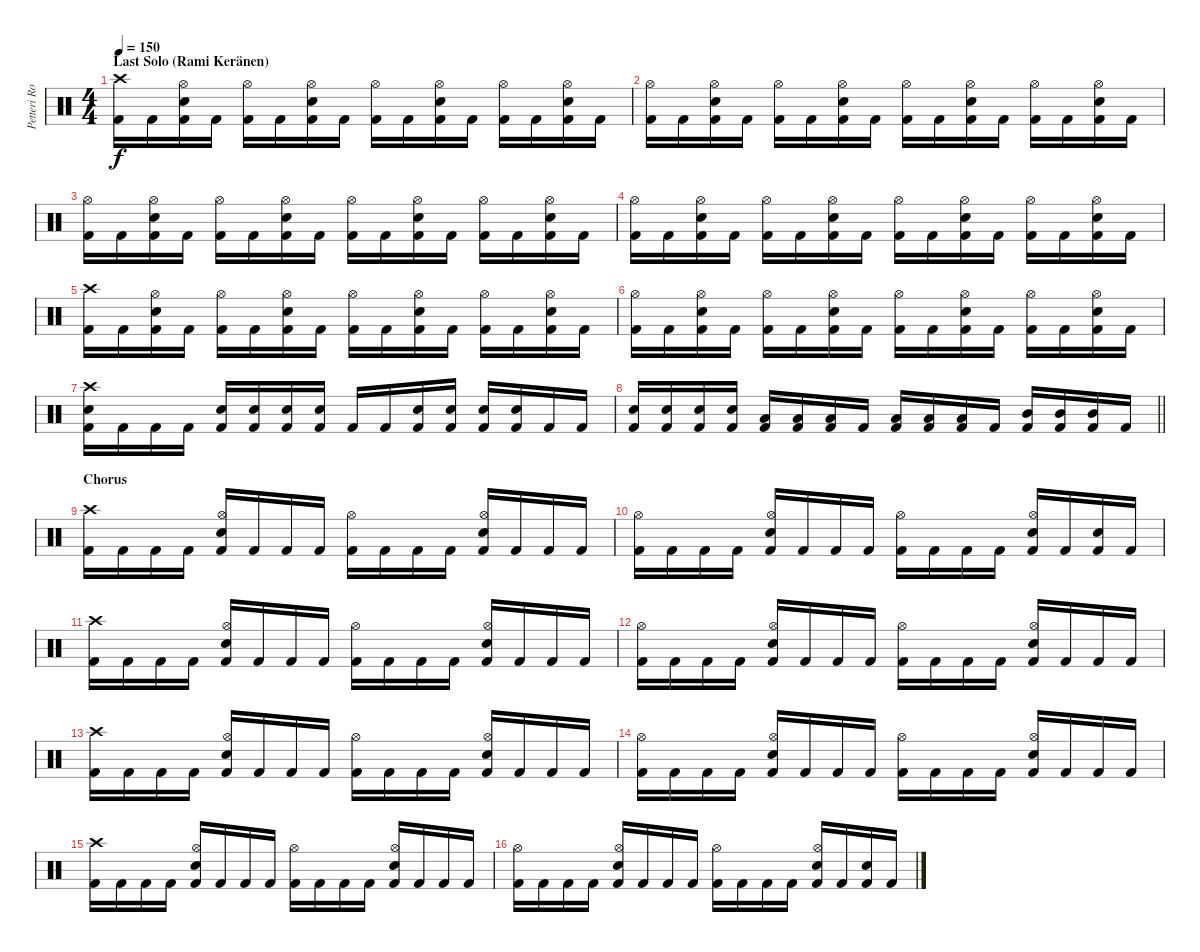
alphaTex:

\track ("Petteri Rosenbom" "Petteri Ro") {instrument percussion}
\staff {score}
\articulation defaults
\ts (4 4)
\section ("" "Last Solo (Rami Keränen)")
\tempo 150
\clef neutral
\ks c
("Crash high (hit)" "Kick (hit) 2").16{dy f} "Kick (hit) 2".16 ("Hi-Hat (open)" "Electric Snare (hit)" "Kick (hit) 2").16 "Kick (hit) 2".16 ("Hi-Hat (open)" "Kick (hit) 2").16 "Kick (hit) 2".16 ("Hi-Hat (open)" "Electric Snare (hit)" "Kick (hit) 2").16 "Kick (hit) 2".16 ("Hi-Hat (open)" "Kick (hit) 2").16 "Kick (hit) 2".16 ("Hi-Hat (open)" "Electric Snare (hit)" "Kick (hit) 2").16 "Kick (hit) 2".16 ("Hi-Hat (open)" "Kick (hit) 2").16 "Kick (hit) 2".16 ("Hi-Hat (open)" "Electric Snare (hit)" "Kick (hit) 2").16 "Kick (hit) 2".16 |
("Hi-Hat (open)" "Kick (hit) 2").16 "Kick (hit) 2".16 ("Hi-Hat (open)" "Electric Snare (hit)" "Kick (hit) 2").16 "Kick (hit) 2".16 ("Hi-Hat (open)" "Kick (hit) 2").16 "Kick (hit) 2".16 ("Hi-Hat (open)" "Electric Snare (hit)" "Kick (hit) 2").16 "Kick (hit) 2".16 ("Hi-Hat (open)" "Kick (hit) 2").16 "Kick (hit) 2".16 ("Hi-Hat (open)" "Electric Snare (hit)" "Kick (hit) 2").16 "Kick (hit) 2".16 ("Hi-Hat (open)" "Kick (hit) 2").16 "Kick (hit) 2".16 ("Hi-Hat (open)" "Electric Snare (hit)" "Kick (hit) 2").16 "Kick (hit) 2".16 |
("Hi-Hat (open)" "Kick (hit) 2").16 "Kick (hit) 2".16 ("Hi-Hat (open)" "Electric Snare (hit)" "Kick (hit) 2").16 "Kick (hit) 2".16 ("Hi-Hat (open)" "Kick (hit) 2").16 "Kick (hit) 2".16 ("Hi-Hat (open)" "Electric Snare (hit)" "Kick (hit) 2").16 "Kick (hit) 2".16 ("Hi-Hat (open)" "Kick (hit) 2").16 "Kick (hit) 2".16 ("Hi-Hat (open)" "Electric Snare (hit)" "Kick (hit) 2").16 "Kick (hit) 2".16 ("Hi-Hat (open)" "Kick (hit) 2").16 "Kick (hit) 2".16 ("Hi-Hat (open)" "Electric Snare (hit)" "Kick (hit) 2").16 "Kick (hit) 2".16 |
("Hi-Hat (open)" "Kick (hit) 2").16 "Kick (hit) 2".16 ("Hi-Hat (open)" "Electric Snare (hit)" "Kick (hit) 2").16 "Kick (hit) 2".16 ("Hi-Hat (open)" "Kick (hit) 2").16 "Kick (hit) 2".16 ("Hi-Hat (open)" "Electric Snare (hit)" "Kick (hit) 2").16 "Kick (hit) 2".16 ("Hi-Hat (open)" "Kick (hit) 2").16 "Kick (hit) 2".16 ("Hi-Hat (open)" "Electric Snare (hit)" "Kick (hit) 2").16 "Kick (hit) 2".16 ("Hi-Hat (open)" "Kick (hit) 2").16 "Kick (hit) 2".16 ("Hi-Hat (open)" "Electric Snare (hit)" "Kick (hit) 2").16 "Kick (hit) 2".16 |
("Crash high (hit)" "Kick (hit) 2").16 "Kick (hit) 2".16 ("Hi-Hat (open)" "Electric Snare (hit)" "Kick (hit) 2").16 "Kick (hit) 2".16 ("Hi-Hat (open)" "Kick (hit) 2").16 "Kick (hit) 2".16 ("Hi-Hat (open)" "Electric Snare (hit)" "Kick (hit) 2").16 "Kick (hit) 2".16 ("Hi-Hat (open)" "Kick (hit) 2").16 "Kick (hit) 2".16 ("Hi-Hat (open)" "Electric Snare (hit)" "Kick (hit) 2").16 "Kick (hit) 2".16 ("Hi-Hat (open)" "Kick (hit) 2").16 "Kick (hit) 2".16 ("Hi-Hat (open)" "Electric Snare (hit)" "Kick (hit) 2").16 "Kick (hit) 2".16 |
("Hi-Hat (open)" "Kick (hit) 2").16 "Kick (hit) 2".16 ("Hi-Hat (open)" "Electric Snare (hit)" "Kick (hit) 2").16 "Kick (hit) 2".16 ("Hi-Hat (open)" "Kick (hit) 2").16 "Kick (hit) 2".16 ("Hi-Hat (open)" "Electric Snare (hit)" "Kick (hit) 2").16 "Kick (hit) 2".16 ("Hi-Hat (open)" "Kick (hit) 2").16 "Kick (hit) 2".16 ("Hi-Hat (open)" "Electric Snare (hit)" "Kick (hit) 2").16 "Kick (hit) 2".16 ("Hi-Hat (open)" "Kick (hit) 2").16 "Kick (hit) 2".16 ("Hi-Hat (open)" "Electric Snare (hit)" "Kick (hit) 2").16 "Kick (hit) 2".16 |
("Crash high (hit)" "Electric Snare (hit)" "Kick (hit) 2").16 "Kick (hit) 2".16 "Kick (hit) 2".16 "Kick (hit) 2".16 ("Electric Snare (hit)" "Kick (hit) 2").16 ("Electric Snare (hit)" "Kick (hit) 2").16 ("Electric Snare (hit)" "Kick (hit) 2").16 ("Electric Snare (hit)" "Kick (hit) 2").16 "Kick (hit) 2".16 "Kick (hit) 2".16 ("Electric Snare (hit)" "Kick (hit) 2").16 ("Electric Snare (hit)" "Kick (hit) 2").16 ("Electric Snare (hit)" "Kick (hit) 2").16 ("Electric Snare (hit)" "Kick (hit) 2").16 "Kick (hit) 2".16 "Kick (hit) 2".16 |
\barLineRight lightlight
("Electric Snare (hit)" "Kick (hit) 2").16 ("Electric Snare (hit)" "Kick (hit) 2").16 ("Electric Snare (hit)" "Kick (hit) 2").16 ("Electric Snare (hit)" "Kick (hit) 2").16 ("Low Floor Tom (hit)" "Kick (hit) 2").16 ("Low Floor Tom (hit)" "Kick (hit) 2").16 ("Low Floor Tom (hit)" "Kick (hit) 2").16 "Kick (hit) 2".16 ("Low Tom (hit)" "Kick (hit) 2").16 ("Low Tom (hit)" "Kick (hit) 2").16 ("Low Tom (hit)" "Kick (hit) 2").16 "Kick (hit) 2".16 ("Mid Tom (hit)" "Kick (hit) 2").16 ("Mid Tom (hit)" "Kick (hit) 2").16 ("Mid Tom (hit)" "Kick (hit) 2").16 "Kick (hit) 2".16 |
\section ("" "Chorus")
("Crash high (hit)" "Kick (hit) 2").16 "Kick (hit) 2".16 "Kick (hit) 2".16 "Kick (hit) 2".16 ("Hi-Hat (open)" "Electric Snare (hit)" "Kick (hit) 2").16 "Kick (hit) 2".16 "Kick (hit) 2".16 "Kick (hit) 2".16 ("Hi-Hat (open)" "Kick (hit) 2").16 "Kick (hit) 2".16 "Kick (hit) 2".16 "Kick (hit) 2".16 ("Hi-Hat (open)" "Electric Snare (hit)" "Kick (hit) 2").16 "Kick (hit) 2".16 "Kick (hit) 2".16 "Kick (hit) 2".16 |
("Hi-Hat (open)" "Kick (hit) 2").16 "Kick (hit) 2".16 "Kick (hit) 2".16 "Kick (hit) 2".16 ("Hi-Hat (open)" "Electric Snare (hit)" "Kick (hit) 2").16 "Kick (hit) 2".16 "Kick (hit) 2".16 "Kick (hit) 2".16 ("Hi-Hat (open)" "Kick (hit) 2").16 "Kick (hit) 2".16 "Kick (hit) 2".16 "Kick (hit) 2".16 ("Hi-Hat (open)" "Electric Snare (hit)" "Kick (hit) 2").16 "Kick (hit) 2".16 ("Electric Snare (hit)" "Kick (hit) 2").16 "Kick (hit) 2".16 |
("Crash high (hit)" "Kick (hit) 2").16 "Kick (hit) 2".16 "Kick (hit) 2".16 "Kick (hit) 2".16 ("Hi-Hat (open)" "Electric Snare (hit)" "Kick (hit) 2").16 "Kick (hit) 2".16 "Kick (hit) 2".16 "Kick (hit) 2".16 ("Hi-Hat (open)" "Kick (hit) 2").16 "Kick (hit) 2".16 "Kick (hit) 2".16 "Kick (hit) 2".16 ("Hi-Hat (open)" "Electric Snare (hit)" "Kick (hit) 2").16 "Kick (hit) 2".16 "Kick (hit) 2".16 "Kick (hit) 2".16 |
("Hi-Hat (open)" "Kick (hit) 2").16 "Kick (hit) 2".16 "Kick (hit) 2".16 "Kick (hit) 2".16 ("Hi-Hat (open)" "Electric Snare (hit)" "Kick (hit) 2").16 "Kick (hit) 2".16 "Kick (hit) 2".16 "Kick (hit) 2".16 ("Hi-Hat (open)" "Kick (hit) 2").16 "Kick (hit) 2".16 "Kick (hit) 2".16 "Kick (hit) 2".16 ("Hi-Hat (open)" "Electric Snare (hit)" "Kick (hit) 2").16 "Kick (hit) 2".16 "Kick (hit) 2".16 "Kick (hit) 2".16 |
("Crash high (hit)" "Kick (hit) 2").16 "Kick (hit) 2".16 "Kick (hit) 2".16 "Kick (hit) 2".16 ("Hi-Hat (open)" "Electric Snare (hit)" "Kick (hit) 2").16 "Kick (hit) 2".16 "Kick (hit) 2".16 "Kick (hit) 2".16 ("Hi-Hat (open)" "Kick (hit) 2").16 "Kick (hit) 2".16 "Kick (hit) 2".16 "Kick (hit) 2".16 ("Hi-Hat (open)" "Electric Snare (hit)" "Kick (hit) 2").16 "Kick (hit) 2".16 "Kick (hit) 2".16 "Kick (hit) 2".16 |
("Hi-Hat (open)" "Kick (hit) 2").16 "Kick (hit) 2".16 "Kick (hit) 2".16 "Kick (hit) 2".16 ("Hi-Hat (open)" "Electric Snare (hit)" "Kick (hit) 2").16 "Kick (hit) 2".16 "Kick (hit) 2".16 "Kick (hit) 2".16 ("Hi-Hat (open)" "Kick (hit) 2").16 "Kick (hit) 2".16 "Kick (hit) 2".16 "Kick (hit) 2".16 ("Hi-Hat (open)" "Electric Snare (hit)" "Kick (hit) 2").16 "Kick (hit) 2".16 "Kick (hit) 2".16 "Kick (hit) 2".16 |
("Crash high (hit)" "Kick (hit) 2").16 "Kick (hit) 2".16 "Kick (hit) 2".16 "Kick (hit) 2".16 ("Hi-Hat (open)" "Electric Snare (hit)" "Kick (hit) 2").16 "Kick (hit) 2".16 "Kick (hit) 2".16 "Kick (hit) 2".16 ("Hi-Hat (open)" "Kick (hit) 2").16 "Kick (hit) 2".16 "Kick (hit) 2".16 "Kick (hit) 2".16 ("Hi-Hat (open)" "Electric Snare (hit)" "Kick (hit) 2").16 "Kick (hit) 2".16 "Kick (hit) 2".16 "Kick (hit) 2".16 |
("Hi-Hat (open)" "Kick (hit) 2").16 "Kick (hit) 2".16 "Kick (hit) 2".16 "Kick (hit) 2".16 ("Hi-Hat (open)" "Electric Snare (hit)" "Kick (hit) 2").16 "Kick (hit) 2".16 "Kick (hit) 2".16 "Kick (hit) 2".16 ("Hi-Hat (open)" "Kick (hit) 2").16 "Kick (hit) 2".16 "Kick (hit) 2".16 "Kick (hit) 2".16 ("Hi-Hat (open)" "Electric Snare (hit)" "Kick (hit) 2").16 "Kick (hit) 2".16 ("Electric Snare (hit)" "Kick (hit) 2").16 "Kick (hit) 2".16
